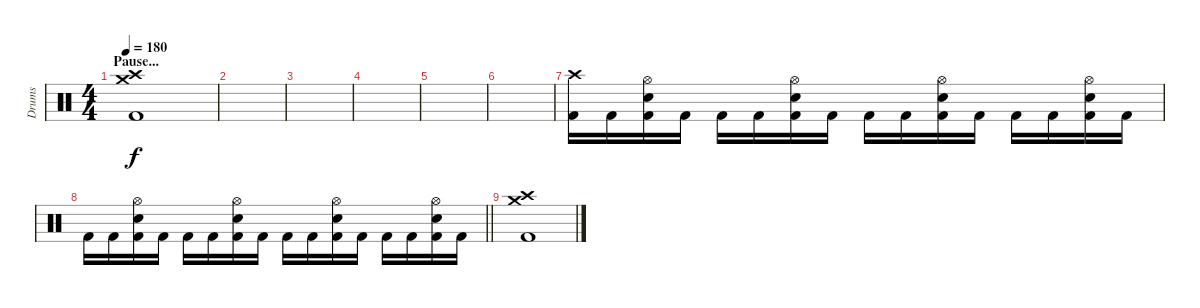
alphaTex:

\track ("Drums" "Drums") {instrument percussion}
\staff {score}
\articulation defaults
\ts (4 4)
\section ("" "Pause...")
\tempo 180
\clef neutral
\ks c
("Kick (hit) 2" "Crash high (hit)" "Crash medium (hit)").1{dy f} |
|
|
|
|
|
("Kick (hit) 2" "Crash high (hit)").16 "Kick (hit) 2".16 ("Kick (hit) 2" "Electric Snare (hit)" "Hi-Hat (open)").16 "Kick (hit) 2".16 "Kick (hit) 2".16 "Kick (hit) 2".16 ("Kick (hit) 2" "Electric Snare (hit)" "Hi-Hat (open)").16 "Kick (hit) 2".16 "Kick (hit) 2".16 "Kick (hit) 2".16 ("Kick (hit) 2" "Electric Snare (hit)" "Hi-Hat (open)").16 "Kick (hit) 2".16 "Kick (hit) 2".16 "Kick (hit) 2".16 ("Kick (hit) 2" "Electric Snare (hit)" "Hi-Hat (open)").16 "Kick (hit) 2".16 |
\barLineRight lightlight "Kick (hit) 2".16 "Kick (hit) 2".16
("Kick (hit) 2" "Electric Snare (hit)" "Hi-Hat (open)").16 "Kick (hit) 2".16 "Kick (hit) 2".16 "Kick (hit) 2".16 ("Kick (hit) 2" "Electric Snare (hit)" "Hi-Hat (open)").16 "Kick (hit) 2".16 "Kick (hit) 2".16 "Kick (hit) 2".16 ("Kick (hit) 2" "Electric Snare (hit)" "Hi-Hat (open)").16 "Kick (hit) 2".16 "Kick (hit) 2".16 "Kick (hit) 2".16 ("Kick (hit) 2" "Electric Snare (hit)" "Hi-Hat (open)").16 "Kick (hit) 2".16 |
("Kick (hit) 2" "Crash high (hit)" "Crash medium (hit)").1
